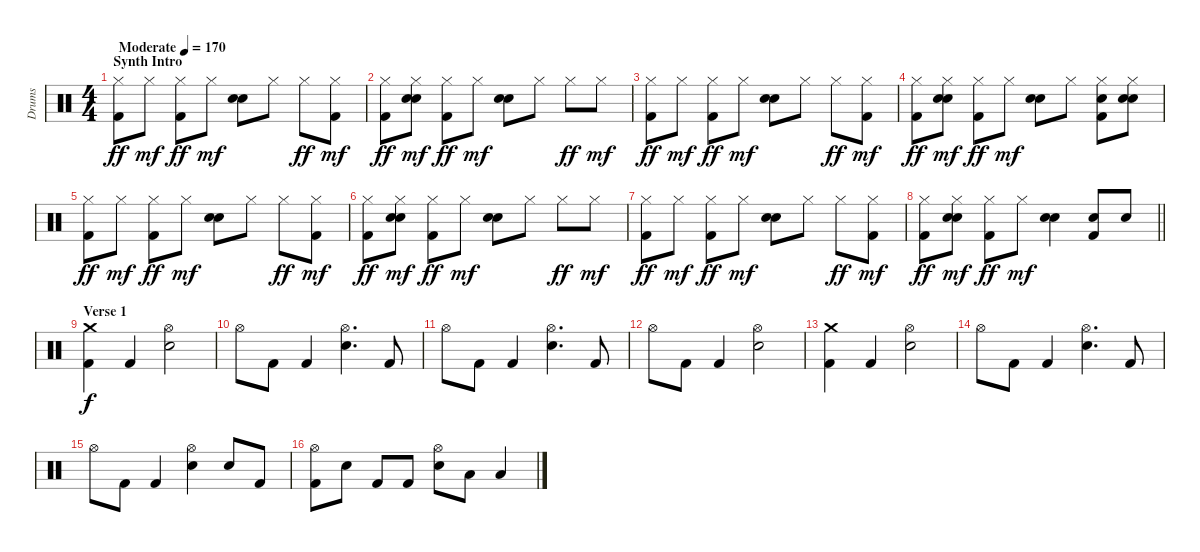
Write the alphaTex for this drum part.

\track ("Drums" "Drums") {instrument percussion}
\staff {score}
\articulation defaults
\ts (4 4)
\section ("" "Synth Intro")
\tempo (170 "Moderate")
\clef neutral
\ks c
("Hi-Hat (closed)" "Kick (hit) 2").8{dy ff volume 16} "Hi-Hat (closed)".8{dy mf} ("Hi-Hat (closed)" "Kick (hit) 2").8{dy ff} "Hi-Hat (closed)".8{dy mf} ("Hand Clap (hit)" "Snare (hit) 2").8 "Hi-Hat (closed)".8 "Hi-Hat (closed)".8{dy ff} ("Hi-Hat (closed)" "Kick (hit) 2").8{dy mf} |
("Hi-Hat (closed)" "Kick (hit) 2").8{dy ff} ("Hi-Hat (closed)" "Hand Clap (hit)" "Snare (hit) 2").8{dy mf} ("Hi-Hat (closed)" "Kick (hit) 2").8{dy ff} "Hi-Hat (closed)".8{dy mf} ("Hand Clap (hit)" "Snare (hit) 2").8 "Hi-Hat (closed)".8 "Hi-Hat (closed)".8{dy ff} "Hi-Hat (closed)".8{dy mf} |
("Hi-Hat (closed)" "Kick (hit) 2").8{dy ff} "Hi-Hat (closed)".8{dy mf} ("Hi-Hat (closed)" "Kick (hit) 2").8{dy ff} "Hi-Hat (closed)".8{dy mf} ("Hand Clap (hit)" "Snare (hit) 2").8 "Hi-Hat (closed)".8 "Hi-Hat (closed)".8{dy ff} ("Hi-Hat (closed)" "Kick (hit) 2").8{dy mf} |
("Hi-Hat (closed)" "Kick (hit) 2").8{dy ff} ("Hi-Hat (closed)" "Hand Clap (hit)" "Snare (hit) 2").8{dy mf} ("Hi-Hat (closed)" "Kick (hit) 2").8{dy ff} "Hi-Hat (closed)".8{dy mf} ("Hand Clap (hit)" "Snare (hit) 2").8 "Hi-Hat (closed)".8 ("Hi-Hat (closed)" "Snare (hit) 2" "Kick (hit) 2").8 ("Hi-Hat (closed)" "Hand Clap (hit)" "Snare (hit) 2").8 |
("Hi-Hat (closed)" "Kick (hit) 2").8{dy ff} "Hi-Hat (closed)".8{dy mf} ("Hi-Hat (closed)" "Kick (hit) 2").8{dy ff} "Hi-Hat (closed)".8{dy mf} ("Hand Clap (hit)" "Snare (hit) 2").8 "Hi-Hat (closed)".8 "Hi-Hat (closed)".8{dy ff} ("Hi-Hat (closed)" "Kick (hit) 2").8{dy mf} |
("Hi-Hat (closed)" "Kick (hit) 2").8{dy ff} ("Hi-Hat (closed)" "Hand Clap (hit)" "Snare (hit) 2").8{dy mf} ("Hi-Hat (closed)" "Kick (hit) 2").8{dy ff} "Hi-Hat (closed)".8{dy mf} ("Hand Clap (hit)" "Snare (hit) 2").8 "Hi-Hat (closed)".8 "Hi-Hat (closed)".8{dy ff} "Hi-Hat (closed)".8{dy mf} |
("Hi-Hat (closed)" "Kick (hit) 2").8{dy ff} "Hi-Hat (closed)".8{dy mf} ("Hi-Hat (closed)" "Kick (hit) 2").8{dy ff} "Hi-Hat (closed)".8{dy mf} ("Hand Clap (hit)" "Snare (hit) 2").8 "Hi-Hat (closed)".8 "Hi-Hat (closed)".8{dy ff} ("Hi-Hat (closed)" "Kick (hit) 2").8{dy mf} |
\barLineRight lightlight
("Hi-Hat (closed)" "Kick (hit) 2").8{dy ff} ("Hi-Hat (closed)" "Hand Clap (hit)" "Snare (hit) 2").8{dy mf} ("Hi-Hat (closed)" "Kick (hit) 2").8{dy ff} "Hi-Hat (closed)".8{dy mf} ("Hand Clap (hit)" "Snare (hit) 2").4 ("Snare (hit) 2" "Kick (hit) 2").8 "Snare (hit) 2".8 |
\section ("" "Verse 1")
("Crash medium (hit)" "Kick (hit) 2").4{dy f volume 13} "Kick (hit) 2".4 ("Hi-Hat (open)" "Snare (hit) 2").2 |
"Hi-Hat (open)".8 "Kick (hit) 2".8 "Kick (hit) 2".4 ("Hi-Hat (open)" "Snare (hit) 2").4{d} "Kick (hit) 2".8 |
"Hi-Hat (open)".8 "Kick (hit) 2".8 "Kick (hit) 2".4 ("Hi-Hat (open)" "Snare (hit) 2").4{d} "Kick (hit) 2".8 |
"Hi-Hat (open)".8 "Kick (hit) 2".8 "Kick (hit) 2".4 ("Hi-Hat (open)" "Snare (hit) 2").2 |
("Crash medium (hit)" "Kick (hit) 2").4{volume 13} "Kick (hit) 2".4 ("Hi-Hat (open)" "Snare (hit) 2").2 |
"Hi-Hat (open)".8 "Kick (hit) 2".8 "Kick (hit) 2".4 ("Hi-Hat (open)" "Snare (hit) 2").4{d} "Kick (hit) 2".8 |
"Hi-Hat (open)".8 "Kick (hit) 2".8 "Kick (hit) 2".4 ("Hi-Hat (open)" "Snare (hit) 2").4 "Snare (hit) 2".8 "Kick (hit) 2".8 |
("Hi-Hat (open)" "Kick (hit) 2").8 "Snare (hit) 2".8 "Kick (hit) 2".8 "Kick (hit) 2".8 ("Hi-Hat (open)" "Snare (hit) 2").8 "Low Tom (hit)".8 "Low Floor Tom (hit)".4
